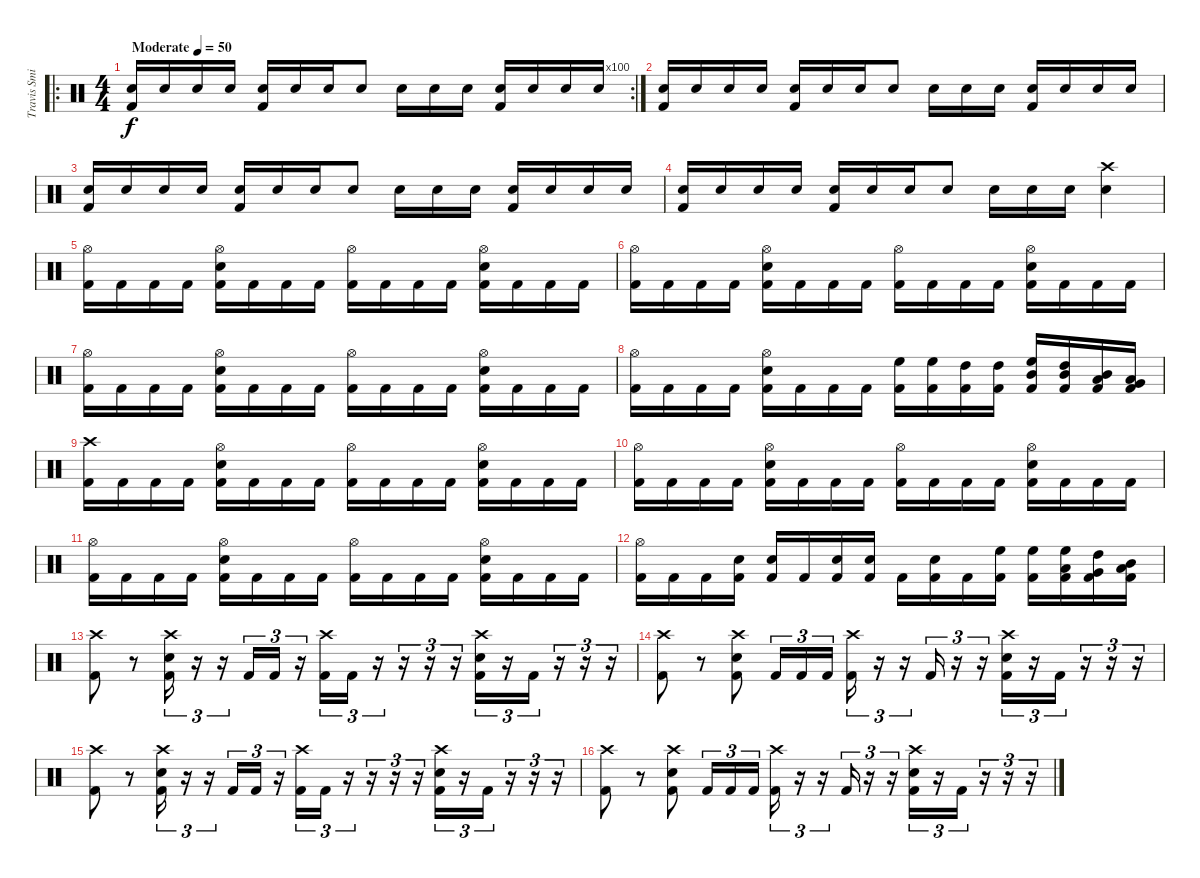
\track ("Travis Smith" "Travis Smi") {instrument percussion}
\staff {score}
\articulation defaults
\ro
\rc 100
\ts (4 4)
\section ("" "")
\tempo (50 "Moderate")
\clef neutral
\ks c
("Kick (hit) 2" "Snare (hit) 2").16{dy f} "Snare (hit) 2".16 "Snare (hit) 2".16 "Snare (hit) 2".16 ("Kick (hit) 2" "Snare (hit) 2").16 "Snare (hit) 2".16 "Snare (hit) 2".16 "Snare (hit) 2".8 "Snare (hit) 2".16 "Snare (hit) 2".16 "Snare (hit) 2".16 ("Kick (hit) 2" "Snare (hit) 2").16 "Snare (hit) 2".16 "Snare (hit) 2".16 "Snare (hit) 2".16 |
("Kick (hit) 2" "Snare (hit) 2").16 "Snare (hit) 2".16 "Snare (hit) 2".16 "Snare (hit) 2".16 ("Kick (hit) 2" "Snare (hit) 2").16 "Snare (hit) 2".16 "Snare (hit) 2".16 "Snare (hit) 2".8 "Snare (hit) 2".16 "Snare (hit) 2".16 "Snare (hit) 2".16 ("Kick (hit) 2" "Snare (hit) 2").16 "Snare (hit) 2".16 "Snare (hit) 2".16 "Snare (hit) 2".16 |
("Kick (hit) 2" "Snare (hit) 2").16 "Snare (hit) 2".16 "Snare (hit) 2".16 "Snare (hit) 2".16 ("Kick (hit) 2" "Snare (hit) 2").16 "Snare (hit) 2".16 "Snare (hit) 2".16 "Snare (hit) 2".8 "Snare (hit) 2".16 "Snare (hit) 2".16 "Snare (hit) 2".16 ("Kick (hit) 2" "Snare (hit) 2").16 "Snare (hit) 2".16 "Snare (hit) 2".16 "Snare (hit) 2".16 |
("Kick (hit) 2" "Snare (hit) 2").16 "Snare (hit) 2".16 "Snare (hit) 2".16 "Snare (hit) 2".16 ("Kick (hit) 2" "Snare (hit) 2").16 "Snare (hit) 2".16 "Snare (hit) 2".16 "Snare (hit) 2".8 "Snare (hit) 2".16 "Snare (hit) 2".16 "Snare (hit) 2".16 ("Crash high (hit)" "Snare (hit) 2").4 |
\section ("" "")
("Hi-Hat (open)" "Kick (hit) 2").16 "Kick (hit) 2".16 "Kick (hit) 2".16 "Kick (hit) 2".16 ("Hi-Hat (open)" "Snare (hit) 2" "Kick (hit) 2").16 "Kick (hit) 2".16 "Kick (hit) 2".16 "Kick (hit) 2".16 ("Hi-Hat (open)" "Kick (hit) 2").16 "Kick (hit) 2".16 "Kick (hit) 2".16 "Kick (hit) 2".16 ("Hi-Hat (open)" "Snare (hit) 2" "Kick (hit) 2").16 "Kick (hit) 2".16 "Kick (hit) 2".16 "Kick (hit) 2".16 |
("Hi-Hat (open)" "Kick (hit) 2").16 "Kick (hit) 2".16 "Kick (hit) 2".16 "Kick (hit) 2".16 ("Hi-Hat (open)" "Snare (hit) 2" "Kick (hit) 2").16 "Kick (hit) 2".16 "Kick (hit) 2".16 "Kick (hit) 2".16 ("Hi-Hat (open)" "Kick (hit) 2").16 "Kick (hit) 2".16 "Kick (hit) 2".16 "Kick (hit) 2".16 ("Hi-Hat (open)" "Snare (hit) 2" "Kick (hit) 2").16 "Kick (hit) 2".16 "Kick (hit) 2".16 "Kick (hit) 2".16 |
("Hi-Hat (open)" "Kick (hit) 2").16 "Kick (hit) 2".16 "Kick (hit) 2".16 "Kick (hit) 2".16 ("Hi-Hat (open)" "Snare (hit) 2" "Kick (hit) 2").16 "Kick (hit) 2".16 "Kick (hit) 2".16 "Kick (hit) 2".16 ("Hi-Hat (open)" "Kick (hit) 2").16 "Kick (hit) 2".16 "Kick (hit) 2".16 "Kick (hit) 2".16 ("Hi-Hat (open)" "Snare (hit) 2" "Kick (hit) 2").16 "Kick (hit) 2".16 "Kick (hit) 2".16 "Kick (hit) 2".16 |
("Hi-Hat (open)" "Kick (hit) 2").16 "Kick (hit) 2".16 "Kick (hit) 2".16 "Kick (hit) 2".16 ("Hi-Hat (open)" "Snare (hit) 2" "Kick (hit) 2").16 "Kick (hit) 2".16 "Kick (hit) 2".16 "Kick (hit) 2".16 ("High Floor Tom (hit)" "Kick (hit) 2").16 ("High Floor Tom (hit)" "Kick (hit) 2").16 ("High Tom (hit)" "Kick (hit) 2").16 ("High Tom (hit)" "Kick (hit) 2").16 ("Mid Tom (hit)" "High Floor Tom (hit)" "Kick (hit) 2").16 ("Mid Tom (hit)" "High Tom (hit)" "Kick (hit) 2").16 ("Low Tom (hit)" "Mid Tom (hit)" "Kick (hit) 2").16 ("Very Low Tom (hit)" "Low Tom (hit)" "Kick (hit) 2").16 |
("Crash high (hit)" "Kick (hit) 2").16 "Kick (hit) 2".16 "Kick (hit) 2".16 "Kick (hit) 2".16 ("Hi-Hat (open)" "Snare (hit) 2" "Kick (hit) 2").16 "Kick (hit) 2".16 "Kick (hit) 2".16 "Kick (hit) 2".16 ("Hi-Hat (open)" "Kick (hit) 2").16 "Kick (hit) 2".16 "Kick (hit) 2".16 "Kick (hit) 2".16 ("Hi-Hat (open)" "Snare (hit) 2" "Kick (hit) 2").16 "Kick (hit) 2".16 "Kick (hit) 2".16 "Kick (hit) 2".16 |
("Hi-Hat (open)" "Kick (hit) 2").16 "Kick (hit) 2".16 "Kick (hit) 2".16 "Kick (hit) 2".16 ("Hi-Hat (open)" "Snare (hit) 2" "Kick (hit) 2").16 "Kick (hit) 2".16 "Kick (hit) 2".16 "Kick (hit) 2".16 ("Hi-Hat (open)" "Kick (hit) 2").16 "Kick (hit) 2".16 "Kick (hit) 2".16 "Kick (hit) 2".16 ("Hi-Hat (open)" "Snare (hit) 2" "Kick (hit) 2").16 "Kick (hit) 2".16 "Kick (hit) 2".16 "Kick (hit) 2".16 |
("Hi-Hat (open)" "Kick (hit) 2").16 "Kick (hit) 2".16 "Kick (hit) 2".16 "Kick (hit) 2".16 ("Hi-Hat (open)" "Snare (hit) 2" "Kick (hit) 2").16 "Kick (hit) 2".16 "Kick (hit) 2".16 "Kick (hit) 2".16 ("Hi-Hat (open)" "Kick (hit) 2").16 "Kick (hit) 2".16 "Kick (hit) 2".16 "Kick (hit) 2".16 ("Hi-Hat (open)" "Snare (hit) 2" "Kick (hit) 2").16 "Kick (hit) 2".16 "Kick (hit) 2".16 "Kick (hit) 2".16 |
("Hi-Hat (open)" "Kick (hit) 2").16 "Kick (hit) 2".16 "Kick (hit) 2".16 ("Snare (hit) 2" "Kick (hit) 2").16 ("Snare (hit) 2" "Kick (hit) 2").16 "Kick (hit) 2".16 ("Snare (hit) 2" "Kick (hit) 2").16 ("Snare (hit) 2" "Kick (hit) 2").16 "Kick (hit) 2".16 ("Snare (hit) 2" "Kick (hit) 2").16 "Kick (hit) 2".16 ("High Floor Tom (hit)" "Kick (hit) 2").16 ("High Floor Tom (hit)" "Kick (hit) 2").16 ("Low Tom (hit)" "High Floor Tom (hit)" "Kick (hit) 2").16 ("Very Low Tom (hit)" "High Tom (hit)" "Kick (hit) 2").16 ("Low Floor Tom (hit)" "Mid Tom (hit)" "Kick (hit) 2").16 |
\section ("" "")
("Crash high (hit)" "Kick (hit) 2").8 r.8 ("Crash high (hit)" "Snare (hit) 2" "Kick (hit) 2").16{tu (3 2)} r.16{tu (3 2)} r.16{tu (3 2)} "Kick (hit) 2".16{tu (3 2)} "Kick (hit) 2".16{tu (3 2)} r.16{tu (3 2)} ("Crash high (hit)" "Kick (hit) 2").16{tu (3 2)} "Kick (hit) 2".16{tu (3 2)} r.16{tu (3 2)} r.16{tu (3 2)} r.16{tu (3 2)} r.16{tu (3 2)} ("Crash high (hit)" "Snare (hit) 2" "Kick (hit) 2").16{tu (3 2)} r.16{tu (3 2)} "Kick (hit) 2".16{tu (3 2)} r.16{tu (3 2)} r.16{tu (3 2)} r.16{tu (3 2)} |
("Crash high (hit)" "Kick (hit) 2").8 r.8 ("Crash high (hit)" "Snare (hit) 2" "Kick (hit) 2").8 "Kick (hit) 2".16{tu (3 2)} "Kick (hit) 2".16{tu (3 2)} "Kick (hit) 2".16{tu (3 2)} ("Crash high (hit)" "Kick (hit) 2").16{tu (3 2)} r.16{tu (3 2)} r.16{tu (3 2)} "Kick (hit) 2".16{tu (3 2)} r.16{tu (3 2)} r.16{tu (3 2)} ("Crash high (hit)" "Snare (hit) 2" "Kick (hit) 2").16{tu (3 2)} r.16{tu (3 2)} "Kick (hit) 2".16{tu (3 2)} r.16{tu (3 2)} r.16{tu (3 2)} r.16{tu (3 2)} |
("Crash high (hit)" "Kick (hit) 2").8 r.8 ("Crash high (hit)" "Snare (hit) 2" "Kick (hit) 2").16{tu (3 2)} r.16{tu (3 2)} r.16{tu (3 2)} "Kick (hit) 2".16{tu (3 2)} "Kick (hit) 2".16{tu (3 2)} r.16{tu (3 2)} ("Crash high (hit)" "Kick (hit) 2").16{tu (3 2)} "Kick (hit) 2".16{tu (3 2)} r.16{tu (3 2)} r.16{tu (3 2)} r.16{tu (3 2)} r.16{tu (3 2)} ("Crash high (hit)" "Snare (hit) 2" "Kick (hit) 2").16{tu (3 2)} r.16{tu (3 2)} "Kick (hit) 2".16{tu (3 2)} r.16{tu (3 2)} r.16{tu (3 2)} r.16{tu (3 2)} |
("Crash high (hit)" "Kick (hit) 2").8 r.8 ("Crash high (hit)" "Snare (hit) 2" "Kick (hit) 2").8 "Kick (hit) 2".16{tu (3 2)} "Kick (hit) 2".16{tu (3 2)} "Kick (hit) 2".16{tu (3 2)} ("Crash high (hit)" "Kick (hit) 2").16{tu (3 2)} r.16{tu (3 2)} r.16{tu (3 2)} "Kick (hit) 2".16{tu (3 2)} r.16{tu (3 2)} r.16{tu (3 2)} ("Crash high (hit)" "Snare (hit) 2" "Kick (hit) 2").16{tu (3 2)} r.16{tu (3 2)} "Kick (hit) 2".16{tu (3 2)} r.16{tu (3 2)} r.16{tu (3 2)} r.16{tu (3 2)}
